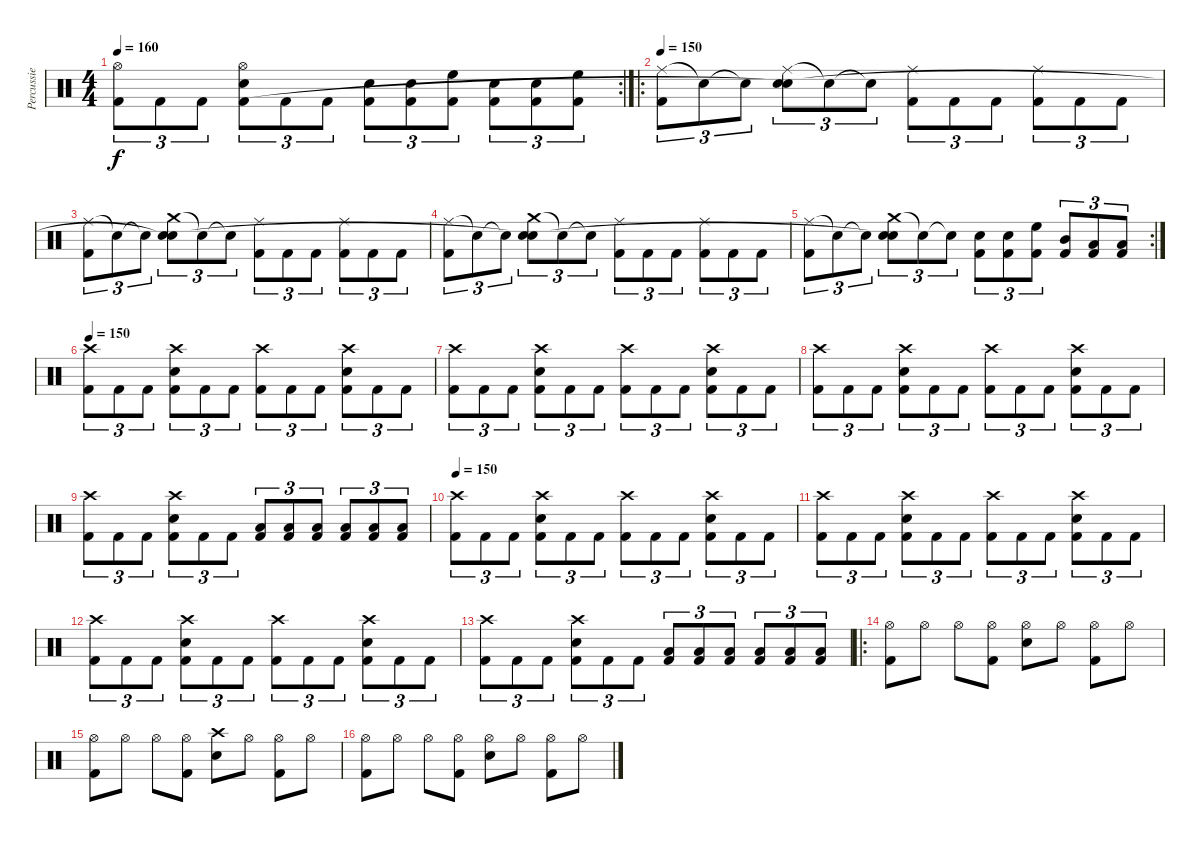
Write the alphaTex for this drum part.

\track ("Percussie" "Percussie") {instrument percussion}
\staff {score}
\articulation defaults
\rc 2
\ts (4 4)
\tempo 160
\clef neutral
\ks c
("Hi-Hat (open)" "Kick (hit) 2").8{tu (3 2) dy f} "Kick (hit) 2".8{tu (3 2)} "Kick (hit) 2".8{tu (3 2)} ("Hi-Hat (open)" "Snare (hit) 2" "Kick (hit) 2").8{tu (3 2)} "Kick (hit) 2".8{tu (3 2)} "Kick (hit) 2".8{tu (3 2)} ("Snare (hit) 2" "Kick (hit) 2").8{tu (3 2)} ("Snare (hit) 2" "Kick (hit) 2").8{tu (3 2)} ("High Floor Tom (hit)" "Kick (hit) 2").8{tu (3 2)} ("Snare (hit) 2" "Kick (hit) 2").8{tu (3 2)} ("Snare (hit) 2" "Kick (hit) 2").8{tu (3 2)} ("High Floor Tom (hit)" "Kick (hit) 2").8{tu (3 2)} |
\ro
\tempo 150
("Ride (middle)" "Kick (hit) 2").8{tu (3 2)} "Snare (hit)"{t}.8{tu (3 2)} "Snare (hit)"{t}.8{tu (3 2)} ("Ride (middle)" "Snare (hit) 2" "Snare (hit)"{t}).8{tu (3 2)} "Snare (hit)"{t}.8{tu (3 2)} "Snare (hit)"{t}.8{tu (3 2)} ("Ride (middle)" "Kick (hit) 2").8{tu (3 2)} "Kick (hit) 2".8{tu (3 2)} "Kick (hit) 2".8{tu (3 2)} ("Ride (middle)" "Kick (hit) 2").8{tu (3 2)} "Kick (hit) 2".8{tu (3 2)} "Kick (hit) 2".8{tu (3 2)} |
("Ride (middle)" "Kick (hit) 2").8{tu (3 2)} "Snare (hit)"{t}.8{tu (3 2)} "Snare (hit)"{t}.8{tu (3 2)} ("Crash medium (hit)" "Snare (hit) 2" "Snare (hit)"{t}).8{tu (3 2)} "Snare (hit)"{t}.8{tu (3 2)} "Snare (hit)"{t}.8{tu (3 2)} ("Ride (middle)" "Kick (hit) 2").8{tu (3 2)} "Kick (hit) 2".8{tu (3 2)} "Kick (hit) 2".8{tu (3 2)} ("Ride (middle)" "Kick (hit) 2").8{tu (3 2)} "Kick (hit) 2".8{tu (3 2)} "Kick (hit) 2".8{tu (3 2)} |
("Ride (middle)" "Kick (hit) 2").8{tu (3 2)} "Snare (hit)"{t}.8{tu (3 2)} "Snare (hit)"{t}.8{tu (3 2)} ("Crash medium (hit)" "Snare (hit) 2" "Snare (hit)"{t}).8{tu (3 2)} "Snare (hit)"{t}.8{tu (3 2)} "Snare (hit)"{t}.8{tu (3 2)} ("Ride (middle)" "Kick (hit) 2").8{tu (3 2)} "Kick (hit) 2".8{tu (3 2)} "Kick (hit) 2".8{tu (3 2)} ("Ride (middle)" "Kick (hit) 2").8{tu (3 2)} "Kick (hit) 2".8{tu (3 2)} "Kick (hit) 2".8{tu (3 2)} |
\rc 2
("Ride (middle)" "Kick (hit) 2").8{tu (3 2)} "Snare (hit)"{t}.8{tu (3 2)} "Snare (hit)"{t}.8{tu (3 2)} ("Crash medium (hit)" "Snare (hit) 2" "Snare (hit)"{t}).8{tu (3 2)} "Snare (hit)"{t}.8{tu (3 2)} "Snare (hit)"{t}.8{tu (3 2)} ("Snare (hit) 2" "Kick (hit) 2").8{tu (3 2)} ("Snare (hit) 2" "Kick (hit) 2").8{tu (3 2)} ("High Floor Tom (hit)" "Kick (hit) 2").8{tu (3 2)} ("Mid Tom (hit)" "Kick (hit) 2").8{tu (3 2)} ("Low Tom (hit)" "Kick (hit) 2").8{tu (3 2)} ("Low Floor Tom (hit)" "Kick (hit) 2").8{tu (3 2)} |
\tempo 150
("Crash high (hit)" "Kick (hit) 2").8{tu (3 2)} "Kick (hit) 2".8{tu (3 2)} "Kick (hit) 2".8{tu (3 2)} ("Crash high (hit)" "Snare (hit) 2" "Kick (hit) 2").8{tu (3 2)} "Kick (hit) 2".8{tu (3 2)} "Kick (hit) 2".8{tu (3 2)} ("Crash high (hit)" "Kick (hit) 2").8{tu (3 2)} "Kick (hit) 2".8{tu (3 2)} "Kick (hit) 2".8{tu (3 2)} ("Crash high (hit)" "Snare (hit) 2" "Kick (hit) 2").8{tu (3 2)} "Kick (hit) 2".8{tu (3 2)} "Kick (hit) 2".8{tu (3 2)} |
("Crash high (hit)" "Kick (hit) 2").8{tu (3 2)} "Kick (hit) 2".8{tu (3 2)} "Kick (hit) 2".8{tu (3 2)} ("Crash high (hit)" "Snare (hit) 2" "Kick (hit) 2").8{tu (3 2)} "Kick (hit) 2".8{tu (3 2)} "Kick (hit) 2".8{tu (3 2)} ("Crash high (hit)" "Kick (hit) 2").8{tu (3 2)} "Kick (hit) 2".8{tu (3 2)} "Kick (hit) 2".8{tu (3 2)} ("Crash high (hit)" "Snare (hit) 2" "Kick (hit) 2").8{tu (3 2)} "Kick (hit) 2".8{tu (3 2)} "Kick (hit) 2".8{tu (3 2)} |
("Crash high (hit)" "Kick (hit) 2").8{tu (3 2)} "Kick (hit) 2".8{tu (3 2)} "Kick (hit) 2".8{tu (3 2)} ("Crash high (hit)" "Snare (hit) 2" "Kick (hit) 2").8{tu (3 2)} "Kick (hit) 2".8{tu (3 2)} "Kick (hit) 2".8{tu (3 2)} ("Crash high (hit)" "Kick (hit) 2").8{tu (3 2)} "Kick (hit) 2".8{tu (3 2)} "Kick (hit) 2".8{tu (3 2)} ("Crash high (hit)" "Snare (hit) 2" "Kick (hit) 2").8{tu (3 2)} "Kick (hit) 2".8{tu (3 2)} "Kick (hit) 2".8{tu (3 2)} |
("Crash high (hit)" "Kick (hit) 2").8{tu (3 2)} "Kick (hit) 2".8{tu (3 2)} "Kick (hit) 2".8{tu (3 2)} ("Crash high (hit)" "Snare (hit) 2" "Kick (hit) 2").8{tu (3 2)} "Kick (hit) 2".8{tu (3 2)} "Kick (hit) 2".8{tu (3 2)} ("Low Tom (hit)" "Kick (hit) 2").8{tu (3 2)} ("Low Floor Tom (hit)" "Kick (hit) 2").8{tu (3 2)} ("Low Floor Tom (hit)" "Kick (hit) 2").8{tu (3 2)} ("Low Tom (hit)" "Kick (hit) 2").8{tu (3 2)} ("Low Floor Tom (hit)" "Kick (hit) 2").8{tu (3 2)} ("Low Floor Tom (hit)" "Kick (hit) 2").8{tu (3 2)} |
\tempo 150
("Crash high (hit)" "Kick (hit) 2").8{tu (3 2)} "Kick (hit) 2".8{tu (3 2)} "Kick (hit) 2".8{tu (3 2)} ("Crash high (hit)" "Snare (hit) 2" "Kick (hit) 2").8{tu (3 2)} "Kick (hit) 2".8{tu (3 2)} "Kick (hit) 2".8{tu (3 2)} ("Crash high (hit)" "Kick (hit) 2").8{tu (3 2)} "Kick (hit) 2".8{tu (3 2)} "Kick (hit) 2".8{tu (3 2)} ("Crash high (hit)" "Snare (hit) 2" "Kick (hit) 2").8{tu (3 2)} "Kick (hit) 2".8{tu (3 2)} "Kick (hit) 2".8{tu (3 2)} |
("Crash high (hit)" "Kick (hit) 2").8{tu (3 2)} "Kick (hit) 2".8{tu (3 2)} "Kick (hit) 2".8{tu (3 2)} ("Crash high (hit)" "Snare (hit) 2" "Kick (hit) 2").8{tu (3 2)} "Kick (hit) 2".8{tu (3 2)} "Kick (hit) 2".8{tu (3 2)} ("Crash high (hit)" "Kick (hit) 2").8{tu (3 2)} "Kick (hit) 2".8{tu (3 2)} "Kick (hit) 2".8{tu (3 2)} ("Crash high (hit)" "Snare (hit) 2" "Kick (hit) 2").8{tu (3 2)} "Kick (hit) 2".8{tu (3 2)} "Kick (hit) 2".8{tu (3 2)} |
("Crash high (hit)" "Kick (hit) 2").8{tu (3 2)} "Kick (hit) 2".8{tu (3 2)} "Kick (hit) 2".8{tu (3 2)} ("Crash high (hit)" "Snare (hit) 2" "Kick (hit) 2").8{tu (3 2)} "Kick (hit) 2".8{tu (3 2)} "Kick (hit) 2".8{tu (3 2)} ("Crash high (hit)" "Kick (hit) 2").8{tu (3 2)} "Kick (hit) 2".8{tu (3 2)} "Kick (hit) 2".8{tu (3 2)} ("Crash high (hit)" "Snare (hit) 2" "Kick (hit) 2").8{tu (3 2)} "Kick (hit) 2".8{tu (3 2)} "Kick (hit) 2".8{tu (3 2)} |
("Crash high (hit)" "Kick (hit) 2").8{tu (3 2)} "Kick (hit) 2".8{tu (3 2)} "Kick (hit) 2".8{tu (3 2)} ("Crash high (hit)" "Snare (hit) 2" "Kick (hit) 2").8{tu (3 2)} "Kick (hit) 2".8{tu (3 2)} "Kick (hit) 2".8{tu (3 2)} ("Low Tom (hit)" "Kick (hit) 2").8{tu (3 2)} ("Low Floor Tom (hit)" "Kick (hit) 2").8{tu (3 2)} ("Low Floor Tom (hit)" "Kick (hit) 2").8{tu (3 2)} ("Low Tom (hit)" "Kick (hit) 2").8{tu (3 2)} ("Low Floor Tom (hit)" "Kick (hit) 2").8{tu (3 2)} ("Low Floor Tom (hit)" "Kick (hit) 2").8{tu (3 2)} |
\ro
("Hi-Hat (open)" "Kick (hit) 2").8 "Hi-Hat (open)".8 "Hi-Hat (open)".8 ("Hi-Hat (open)" "Kick (hit) 2").8 ("Hi-Hat (open)" "Snare (hit) 2").8 "Hi-Hat (open)".8 ("Hi-Hat (open)" "Kick (hit) 2").8 "Hi-Hat (open)".8 |
("Hi-Hat (open)" "Kick (hit) 2").8 "Hi-Hat (open)".8 "Hi-Hat (open)".8 ("Hi-Hat (open)" "Kick (hit) 2").8 ("Crash high (hit)" "Snare (hit) 2").8 "Hi-Hat (open)".8 ("Hi-Hat (open)" "Kick (hit) 2").8 "Hi-Hat (open)".8 |
("Hi-Hat (open)" "Kick (hit) 2").8 "Hi-Hat (open)".8 "Hi-Hat (open)".8 ("Hi-Hat (open)" "Kick (hit) 2").8 ("Hi-Hat (open)" "Snare (hit) 2").8 "Hi-Hat (open)".8 ("Hi-Hat (open)" "Kick (hit) 2").8 "Hi-Hat (open)".8
